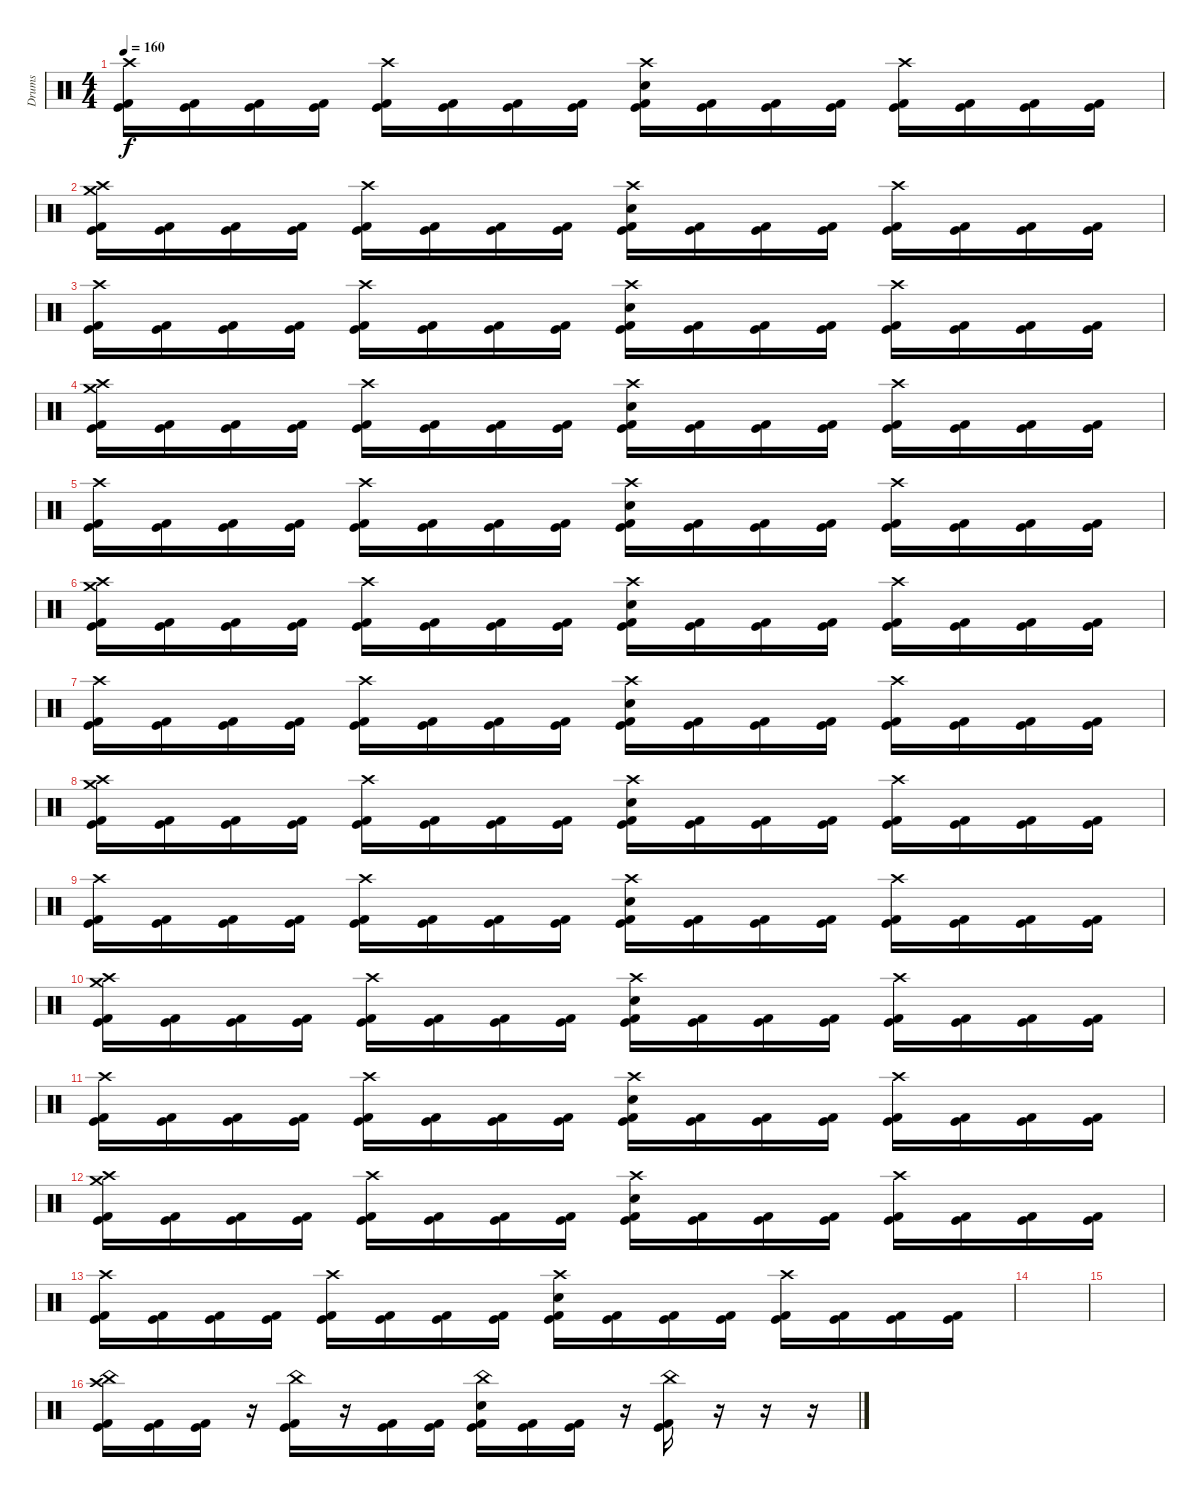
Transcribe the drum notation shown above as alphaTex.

\track ("Drums" "Drums") {instrument percussion}
\staff {score}
\articulation defaults
\ts (4 4)
\tempo 160
\clef neutral
\ks c
("Crash high (hit)" "Kick (hit)" "Kick (hit) 2").16{dy f} ("Kick (hit)" "Kick (hit) 2").16 ("Kick (hit)" "Kick (hit) 2").16 ("Kick (hit)" "Kick (hit) 2").16 ("Crash high (hit)" "Kick (hit)" "Kick (hit) 2").16 ("Kick (hit)" "Kick (hit) 2").16 ("Kick (hit)" "Kick (hit) 2").16 ("Kick (hit)" "Kick (hit) 2").16 ("Crash high (hit)" "Snare (hit) 2" "Kick (hit)" "Kick (hit) 2").16 ("Kick (hit)" "Kick (hit) 2").16 ("Kick (hit)" "Kick (hit) 2").16 ("Kick (hit)" "Kick (hit) 2").16 ("Crash high (hit)" "Kick (hit)" "Kick (hit) 2").16 ("Kick (hit)" "Kick (hit) 2").16 ("Kick (hit)" "Kick (hit) 2").16 ("Kick (hit)" "Kick (hit) 2").16 |
("Crash medium (hit)" "Crash high (hit)" "Kick (hit)" "Kick (hit) 2").16 ("Kick (hit)" "Kick (hit) 2").16 ("Kick (hit)" "Kick (hit) 2").16 ("Kick (hit)" "Kick (hit) 2").16 ("Crash high (hit)" "Kick (hit)" "Kick (hit) 2").16 ("Kick (hit)" "Kick (hit) 2").16 ("Kick (hit)" "Kick (hit) 2").16 ("Kick (hit)" "Kick (hit) 2").16 ("Crash high (hit)" "Snare (hit) 2" "Kick (hit)" "Kick (hit) 2").16 ("Kick (hit)" "Kick (hit) 2").16 ("Kick (hit)" "Kick (hit) 2").16 ("Kick (hit)" "Kick (hit) 2").16 ("Crash high (hit)" "Kick (hit)" "Kick (hit) 2").16 ("Kick (hit)" "Kick (hit) 2").16 ("Kick (hit)" "Kick (hit) 2").16 ("Kick (hit)" "Kick (hit) 2").16 |
("Crash high (hit)" "Kick (hit)" "Kick (hit) 2").16 ("Kick (hit)" "Kick (hit) 2").16 ("Kick (hit)" "Kick (hit) 2").16 ("Kick (hit)" "Kick (hit) 2").16 ("Crash high (hit)" "Kick (hit)" "Kick (hit) 2").16 ("Kick (hit)" "Kick (hit) 2").16 ("Kick (hit)" "Kick (hit) 2").16 ("Kick (hit)" "Kick (hit) 2").16 ("Crash high (hit)" "Snare (hit) 2" "Kick (hit)" "Kick (hit) 2").16 ("Kick (hit)" "Kick (hit) 2").16 ("Kick (hit)" "Kick (hit) 2").16 ("Kick (hit)" "Kick (hit) 2").16 ("Crash high (hit)" "Kick (hit)" "Kick (hit) 2").16 ("Kick (hit)" "Kick (hit) 2").16 ("Kick (hit)" "Kick (hit) 2").16 ("Kick (hit)" "Kick (hit) 2").16 |
("Crash medium (hit)" "Crash high (hit)" "Kick (hit)" "Kick (hit) 2").16 ("Kick (hit)" "Kick (hit) 2").16 ("Kick (hit)" "Kick (hit) 2").16 ("Kick (hit)" "Kick (hit) 2").16 ("Crash high (hit)" "Kick (hit)" "Kick (hit) 2").16 ("Kick (hit)" "Kick (hit) 2").16 ("Kick (hit)" "Kick (hit) 2").16 ("Kick (hit)" "Kick (hit) 2").16 ("Crash high (hit)" "Snare (hit) 2" "Kick (hit)" "Kick (hit) 2").16 ("Kick (hit)" "Kick (hit) 2").16 ("Kick (hit)" "Kick (hit) 2").16 ("Kick (hit)" "Kick (hit) 2").16 ("Crash high (hit)" "Kick (hit)" "Kick (hit) 2").16 ("Kick (hit)" "Kick (hit) 2").16 ("Kick (hit)" "Kick (hit) 2").16 ("Kick (hit)" "Kick (hit) 2").16 |
("Crash high (hit)" "Kick (hit)" "Kick (hit) 2").16 ("Kick (hit)" "Kick (hit) 2").16 ("Kick (hit)" "Kick (hit) 2").16 ("Kick (hit)" "Kick (hit) 2").16 ("Crash high (hit)" "Kick (hit)" "Kick (hit) 2").16 ("Kick (hit)" "Kick (hit) 2").16 ("Kick (hit)" "Kick (hit) 2").16 ("Kick (hit)" "Kick (hit) 2").16 ("Crash high (hit)" "Snare (hit) 2" "Kick (hit)" "Kick (hit) 2").16 ("Kick (hit)" "Kick (hit) 2").16 ("Kick (hit)" "Kick (hit) 2").16 ("Kick (hit)" "Kick (hit) 2").16 ("Crash high (hit)" "Kick (hit)" "Kick (hit) 2").16 ("Kick (hit)" "Kick (hit) 2").16 ("Kick (hit)" "Kick (hit) 2").16 ("Kick (hit)" "Kick (hit) 2").16 |
("Crash medium (hit)" "Crash high (hit)" "Kick (hit)" "Kick (hit) 2").16 ("Kick (hit)" "Kick (hit) 2").16 ("Kick (hit)" "Kick (hit) 2").16 ("Kick (hit)" "Kick (hit) 2").16 ("Crash high (hit)" "Kick (hit)" "Kick (hit) 2").16 ("Kick (hit)" "Kick (hit) 2").16 ("Kick (hit)" "Kick (hit) 2").16 ("Kick (hit)" "Kick (hit) 2").16 ("Crash high (hit)" "Snare (hit) 2" "Kick (hit)" "Kick (hit) 2").16 ("Kick (hit)" "Kick (hit) 2").16 ("Kick (hit)" "Kick (hit) 2").16 ("Kick (hit)" "Kick (hit) 2").16 ("Crash high (hit)" "Kick (hit)" "Kick (hit) 2").16 ("Kick (hit)" "Kick (hit) 2").16 ("Kick (hit)" "Kick (hit) 2").16 ("Kick (hit)" "Kick (hit) 2").16 |
("Crash high (hit)" "Kick (hit)" "Kick (hit) 2").16 ("Kick (hit)" "Kick (hit) 2").16 ("Kick (hit)" "Kick (hit) 2").16 ("Kick (hit)" "Kick (hit) 2").16 ("Crash high (hit)" "Kick (hit)" "Kick (hit) 2").16 ("Kick (hit)" "Kick (hit) 2").16 ("Kick (hit)" "Kick (hit) 2").16 ("Kick (hit)" "Kick (hit) 2").16 ("Crash high (hit)" "Snare (hit) 2" "Kick (hit)" "Kick (hit) 2").16 ("Kick (hit)" "Kick (hit) 2").16 ("Kick (hit)" "Kick (hit) 2").16 ("Kick (hit)" "Kick (hit) 2").16 ("Crash high (hit)" "Kick (hit)" "Kick (hit) 2").16 ("Kick (hit)" "Kick (hit) 2").16 ("Kick (hit)" "Kick (hit) 2").16 ("Kick (hit)" "Kick (hit) 2").16 |
("Crash medium (hit)" "Crash high (hit)" "Kick (hit)" "Kick (hit) 2").16 ("Kick (hit)" "Kick (hit) 2").16 ("Kick (hit)" "Kick (hit) 2").16 ("Kick (hit)" "Kick (hit) 2").16 ("Crash high (hit)" "Kick (hit)" "Kick (hit) 2").16 ("Kick (hit)" "Kick (hit) 2").16 ("Kick (hit)" "Kick (hit) 2").16 ("Kick (hit)" "Kick (hit) 2").16 ("Crash high (hit)" "Snare (hit) 2" "Kick (hit)" "Kick (hit) 2").16 ("Kick (hit)" "Kick (hit) 2").16 ("Kick (hit)" "Kick (hit) 2").16 ("Kick (hit)" "Kick (hit) 2").16 ("Crash high (hit)" "Kick (hit)" "Kick (hit) 2").16 ("Kick (hit)" "Kick (hit) 2").16 ("Kick (hit)" "Kick (hit) 2").16 ("Kick (hit)" "Kick (hit) 2").16 |
("Crash high (hit)" "Kick (hit)" "Kick (hit) 2").16 ("Kick (hit)" "Kick (hit) 2").16 ("Kick (hit)" "Kick (hit) 2").16 ("Kick (hit)" "Kick (hit) 2").16 ("Crash high (hit)" "Kick (hit)" "Kick (hit) 2").16 ("Kick (hit)" "Kick (hit) 2").16 ("Kick (hit)" "Kick (hit) 2").16 ("Kick (hit)" "Kick (hit) 2").16 ("Crash high (hit)" "Snare (hit) 2" "Kick (hit)" "Kick (hit) 2").16 ("Kick (hit)" "Kick (hit) 2").16 ("Kick (hit)" "Kick (hit) 2").16 ("Kick (hit)" "Kick (hit) 2").16 ("Crash high (hit)" "Kick (hit)" "Kick (hit) 2").16 ("Kick (hit)" "Kick (hit) 2").16 ("Kick (hit)" "Kick (hit) 2").16 ("Kick (hit)" "Kick (hit) 2").16 |
("Crash medium (hit)" "Crash high (hit)" "Kick (hit)" "Kick (hit) 2").16 ("Kick (hit)" "Kick (hit) 2").16 ("Kick (hit)" "Kick (hit) 2").16 ("Kick (hit)" "Kick (hit) 2").16 ("Crash high (hit)" "Kick (hit)" "Kick (hit) 2").16 ("Kick (hit)" "Kick (hit) 2").16 ("Kick (hit)" "Kick (hit) 2").16 ("Kick (hit)" "Kick (hit) 2").16 ("Crash high (hit)" "Snare (hit) 2" "Kick (hit)" "Kick (hit) 2").16 ("Kick (hit)" "Kick (hit) 2").16 ("Kick (hit)" "Kick (hit) 2").16 ("Kick (hit)" "Kick (hit) 2").16 ("Crash high (hit)" "Kick (hit)" "Kick (hit) 2").16 ("Kick (hit)" "Kick (hit) 2").16 ("Kick (hit)" "Kick (hit) 2").16 ("Kick (hit)" "Kick (hit) 2").16 |
("Crash high (hit)" "Kick (hit)" "Kick (hit) 2").16 ("Kick (hit)" "Kick (hit) 2").16 ("Kick (hit)" "Kick (hit) 2").16 ("Kick (hit)" "Kick (hit) 2").16 ("Crash high (hit)" "Kick (hit)" "Kick (hit) 2").16 ("Kick (hit)" "Kick (hit) 2").16 ("Kick (hit)" "Kick (hit) 2").16 ("Kick (hit)" "Kick (hit) 2").16 ("Crash high (hit)" "Snare (hit) 2" "Kick (hit)" "Kick (hit) 2").16 ("Kick (hit)" "Kick (hit) 2").16 ("Kick (hit)" "Kick (hit) 2").16 ("Kick (hit)" "Kick (hit) 2").16 ("Crash high (hit)" "Kick (hit)" "Kick (hit) 2").16 ("Kick (hit)" "Kick (hit) 2").16 ("Kick (hit)" "Kick (hit) 2").16 ("Kick (hit)" "Kick (hit) 2").16 |
("Crash medium (hit)" "Crash high (hit)" "Kick (hit)" "Kick (hit) 2").16 ("Kick (hit)" "Kick (hit) 2").16 ("Kick (hit)" "Kick (hit) 2").16 ("Kick (hit)" "Kick (hit) 2").16 ("Crash high (hit)" "Kick (hit)" "Kick (hit) 2").16 ("Kick (hit)" "Kick (hit) 2").16 ("Kick (hit)" "Kick (hit) 2").16 ("Kick (hit)" "Kick (hit) 2").16 ("Crash high (hit)" "Snare (hit) 2" "Kick (hit)" "Kick (hit) 2").16 ("Kick (hit)" "Kick (hit) 2").16 ("Kick (hit)" "Kick (hit) 2").16 ("Kick (hit)" "Kick (hit) 2").16 ("Crash high (hit)" "Kick (hit)" "Kick (hit) 2").16 ("Kick (hit)" "Kick (hit) 2").16 ("Kick (hit)" "Kick (hit) 2").16 ("Kick (hit)" "Kick (hit) 2").16 |
("Crash high (hit)" "Kick (hit)" "Kick (hit) 2").16 ("Kick (hit)" "Kick (hit) 2").16 ("Kick (hit)" "Kick (hit) 2").16 ("Kick (hit)" "Kick (hit) 2").16 ("Crash high (hit)" "Kick (hit)" "Kick (hit) 2").16 ("Kick (hit)" "Kick (hit) 2").16 ("Kick (hit)" "Kick (hit) 2").16 ("Kick (hit)" "Kick (hit) 2").16 ("Crash high (hit)" "Snare (hit) 2" "Kick (hit)" "Kick (hit) 2").16 ("Kick (hit)" "Kick (hit) 2").16 ("Kick (hit)" "Kick (hit) 2").16 ("Kick (hit)" "Kick (hit) 2").16 ("Crash high (hit)" "Kick (hit)" "Kick (hit) 2").16 ("Kick (hit)" "Kick (hit) 2").16 ("Kick (hit)" "Kick (hit) 2").16 ("Kick (hit)" "Kick (hit) 2").16 |
|
|
("Crash high (hit)" "China (hit)" "Kick (hit)" "Kick (hit) 2").16 ("Kick (hit)" "Kick (hit) 2").16 ("Kick (hit)" "Kick (hit) 2").16 r.16 ("China (hit)" "Kick (hit)" "Kick (hit) 2").16 r.16 ("Kick (hit)" "Kick (hit) 2").16 ("Kick (hit)" "Kick (hit) 2").16 ("China (hit)" "Snare (hit) 2" "Kick (hit)" "Kick (hit) 2").16 ("Kick (hit)" "Kick (hit) 2").16 ("Kick (hit)" "Kick (hit) 2").16 r.16 ("China (hit)" "Kick (hit)" "Kick (hit) 2").16 r.16 r.16 r.16
